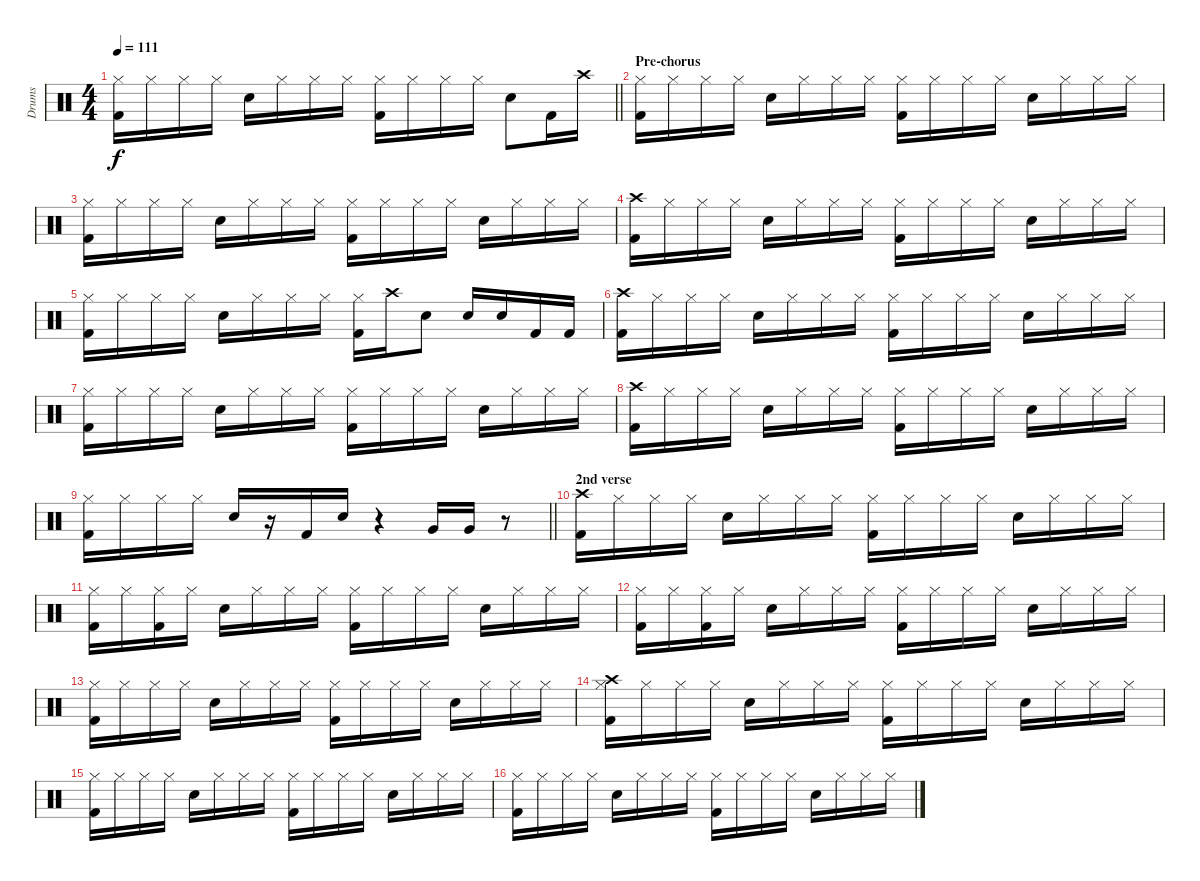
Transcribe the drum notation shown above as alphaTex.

\track ("Drums" "Drums") {instrument percussion}
\staff {score}
\articulation defaults
\ts (4 4)
\tempo 111
\clef neutral
\barLineRight lightlight
\ks c
("Hi-Hat (closed)" "Kick (hit) 2").16{dy f} "Hi-Hat (closed)".16 "Hi-Hat (closed)".16 "Hi-Hat (closed)".16 "Snare (hit) 2".16 "Hi-Hat (closed)".16 "Hi-Hat (closed)".16 "Hi-Hat (closed)".16 ("Hi-Hat (closed)" "Kick (hit) 2").16 "Hi-Hat (closed)".16 "Hi-Hat (closed)".16 "Hi-Hat (closed)".16 "Snare (hit) 2".8 "Kick (hit) 2".16 "Crash high (hit)".16 |
\section ("" "Pre-chorus")
("Hi-Hat (closed)" "Kick (hit) 2").16 "Hi-Hat (closed)".16 "Hi-Hat (closed)".16 "Hi-Hat (closed)".16 "Snare (hit) 2".16 "Hi-Hat (closed)".16 "Hi-Hat (closed)".16 "Hi-Hat (closed)".16 ("Hi-Hat (closed)" "Kick (hit) 2").16 "Hi-Hat (closed)".16 "Hi-Hat (closed)".16 "Hi-Hat (closed)".16 "Snare (hit) 2".16 "Hi-Hat (closed)".16 "Hi-Hat (closed)".16 "Hi-Hat (closed)".16 |
("Hi-Hat (closed)" "Kick (hit) 2").16 "Hi-Hat (closed)".16 "Hi-Hat (closed)".16 "Hi-Hat (closed)".16 "Snare (hit) 2".16 "Hi-Hat (closed)".16 "Hi-Hat (closed)".16 "Hi-Hat (closed)".16 ("Hi-Hat (closed)" "Kick (hit) 2").16 "Hi-Hat (closed)".16 "Hi-Hat (closed)".16 "Hi-Hat (closed)".16 "Snare (hit) 2".16 "Hi-Hat (closed)".16 "Hi-Hat (closed)".16 "Hi-Hat (closed)".16 |
("Crash high (hit)" "Kick (hit) 2").16 "Hi-Hat (closed)".16 "Hi-Hat (closed)".16 "Hi-Hat (closed)".16 "Snare (hit) 2".16 "Hi-Hat (closed)".16 "Hi-Hat (closed)".16 "Hi-Hat (closed)".16 ("Hi-Hat (closed)" "Kick (hit) 2").16 "Hi-Hat (closed)".16 "Hi-Hat (closed)".16 "Hi-Hat (closed)".16 "Snare (hit) 2".16 "Hi-Hat (closed)".16 "Hi-Hat (closed)".16 "Hi-Hat (closed)".16 |
("Hi-Hat (closed)" "Kick (hit) 2").16 "Hi-Hat (closed)".16 "Hi-Hat (closed)".16 "Hi-Hat (closed)".16 "Snare (hit) 2".16 "Hi-Hat (closed)".16 "Hi-Hat (closed)".16 "Hi-Hat (closed)".16 ("Hi-Hat (closed)" "Kick (hit) 2").16 "Crash high (hit)".16 "Snare (hit) 2".8 "Snare (hit) 2".16 "Snare (hit) 2".16 "Kick (hit) 2".16 "Kick (hit) 2".16 |
("Crash high (hit)" "Kick (hit) 2").16 "Hi-Hat (closed)".16 "Hi-Hat (closed)".16 "Hi-Hat (closed)".16 "Snare (hit) 2".16 "Hi-Hat (closed)".16 "Hi-Hat (closed)".16 "Hi-Hat (closed)".16 ("Hi-Hat (closed)" "Kick (hit) 2").16 "Hi-Hat (closed)".16 "Hi-Hat (closed)".16 "Hi-Hat (closed)".16 "Snare (hit) 2".16 "Hi-Hat (closed)".16 "Hi-Hat (closed)".16 "Hi-Hat (closed)".16 |
("Hi-Hat (closed)" "Kick (hit) 2").16 "Hi-Hat (closed)".16 "Hi-Hat (closed)".16 "Hi-Hat (closed)".16 "Snare (hit) 2".16 "Hi-Hat (closed)".16 "Hi-Hat (closed)".16 "Hi-Hat (closed)".16 ("Hi-Hat (closed)" "Kick (hit) 2").16 "Hi-Hat (closed)".16 "Hi-Hat (closed)".16 "Hi-Hat (closed)".16 "Snare (hit) 2".16 "Hi-Hat (closed)".16 "Hi-Hat (closed)".16 "Hi-Hat (closed)".16 |
("Crash high (hit)" "Kick (hit) 2").16 "Hi-Hat (closed)".16 "Hi-Hat (closed)".16 "Hi-Hat (closed)".16 "Snare (hit) 2".16 "Hi-Hat (closed)".16 "Hi-Hat (closed)".16 "Hi-Hat (closed)".16 ("Hi-Hat (closed)" "Kick (hit) 2").16 "Hi-Hat (closed)".16 "Hi-Hat (closed)".16 "Hi-Hat (closed)".16 "Snare (hit) 2".16 "Hi-Hat (closed)".16 "Hi-Hat (closed)".16 "Hi-Hat (closed)".16 |
\barLineRight lightlight
("Hi-Hat (closed)" "Kick (hit) 2").16 "Hi-Hat (closed)".16 "Hi-Hat (closed)".16 "Hi-Hat (closed)".16 "Snare (hit) 2".16 r.16 "Kick (hit) 2".16 "Snare (hit) 2".16 r.4 "Very Low Tom (hit)".16 "Very Low Tom (hit)".16 r.8 |
\section ("" "2nd verse")
("Crash high (hit)" "Kick (hit) 2").16 "Hi-Hat (closed)".16 "Hi-Hat (closed)".16 "Hi-Hat (closed)".16 "Snare (hit) 2".16 "Hi-Hat (closed)".16 "Hi-Hat (closed)".16 "Hi-Hat (closed)".16 ("Hi-Hat (closed)" "Kick (hit) 2").16 "Hi-Hat (closed)".16 "Hi-Hat (closed)".16 "Hi-Hat (closed)".16 "Snare (hit) 2".16 "Hi-Hat (closed)".16 "Hi-Hat (closed)".16 "Hi-Hat (closed)".16 |
("Hi-Hat (closed)" "Kick (hit) 2").16 "Hi-Hat (closed)".16 ("Hi-Hat (closed)" "Kick (hit) 2").16 "Hi-Hat (closed)".16 "Snare (hit) 2".16 "Hi-Hat (closed)".16 "Hi-Hat (closed)".16 "Hi-Hat (closed)".16 ("Hi-Hat (closed)" "Kick (hit) 2").16 "Hi-Hat (closed)".16 "Hi-Hat (closed)".16 "Hi-Hat (closed)".16 "Snare (hit) 2".16 "Hi-Hat (closed)".16 "Hi-Hat (closed)".16 "Hi-Hat (closed)".16 |
("Hi-Hat (closed)" "Kick (hit) 2").16 "Hi-Hat (closed)".16 ("Hi-Hat (closed)" "Kick (hit) 2").16 "Hi-Hat (closed)".16 "Snare (hit) 2".16 "Hi-Hat (closed)".16 "Hi-Hat (closed)".16 "Hi-Hat (closed)".16 ("Hi-Hat (closed)" "Kick (hit) 2").16 "Hi-Hat (closed)".16 "Hi-Hat (closed)".16 "Hi-Hat (closed)".16 "Snare (hit) 2".16 "Hi-Hat (closed)".16 "Hi-Hat (closed)".16 "Hi-Hat (closed)".16 |
("Hi-Hat (closed)" "Kick (hit) 2").16 "Hi-Hat (closed)".16 "Hi-Hat (closed)".16 "Hi-Hat (closed)".16 "Snare (hit) 2".16 "Hi-Hat (closed)".16 "Hi-Hat (closed)".16 "Hi-Hat (closed)".16 ("Hi-Hat (closed)" "Kick (hit) 2").16 "Hi-Hat (closed)".16 "Hi-Hat (closed)".16 "Hi-Hat (closed)".16 "Snare (hit) 2".16 "Hi-Hat (closed)".16 "Hi-Hat (closed)".16 "Hi-Hat (closed)".16 |
("Crash high (hit)" "Hi-Hat (closed)" "Kick (hit) 2").16 "Hi-Hat (closed)".16 "Hi-Hat (closed)".16 "Hi-Hat (closed)".16 "Snare (hit) 2".16 "Hi-Hat (closed)".16 "Hi-Hat (closed)".16 "Hi-Hat (closed)".16 ("Hi-Hat (closed)" "Kick (hit) 2").16 "Hi-Hat (closed)".16 "Hi-Hat (closed)".16 "Hi-Hat (closed)".16 "Snare (hit) 2".16 "Hi-Hat (closed)".16 "Hi-Hat (closed)".16 "Hi-Hat (closed)".16 |
("Hi-Hat (closed)" "Kick (hit) 2").16 "Hi-Hat (closed)".16 "Hi-Hat (closed)".16 "Hi-Hat (closed)".16 "Snare (hit) 2".16 "Hi-Hat (closed)".16 "Hi-Hat (closed)".16 "Hi-Hat (closed)".16 ("Hi-Hat (closed)" "Kick (hit) 2").16 "Hi-Hat (closed)".16 "Hi-Hat (closed)".16 "Hi-Hat (closed)".16 "Snare (hit) 2".16 "Hi-Hat (closed)".16 "Hi-Hat (closed)".16 "Hi-Hat (closed)".16 |
("Hi-Hat (closed)" "Kick (hit) 2").16 "Hi-Hat (closed)".16 "Hi-Hat (closed)".16 "Hi-Hat (closed)".16 "Snare (hit) 2".16 "Hi-Hat (closed)".16 "Hi-Hat (closed)".16 "Hi-Hat (closed)".16 ("Hi-Hat (closed)" "Kick (hit) 2").16 "Hi-Hat (closed)".16 "Hi-Hat (closed)".16 "Hi-Hat (closed)".16 "Snare (hit) 2".16 "Hi-Hat (closed)".16 "Hi-Hat (closed)".16 "Hi-Hat (closed)".16
